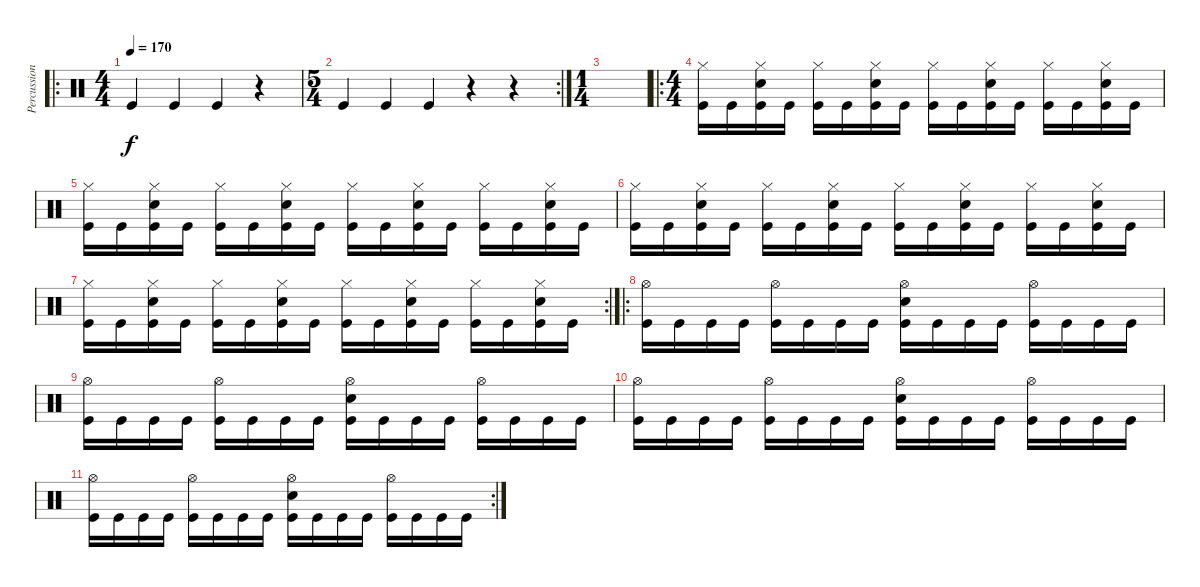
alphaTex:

\track ("Percussion" "Percussion") {instrument percussion}
\staff {score}
\articulation defaults
\ro
\ts (4 4)
\tempo 170
\clef neutral
\ks c "Kick (hit)".4{dy f} "Kick (hit)".4 "Kick (hit)".4
r.4 |
\rc 2
\ts (5 4)
"Kick (hit)".4 "Kick (hit)".4 "Kick (hit)".4 r.4 r.4 |
\ts (1 4)
|
\ro
\ts (4 4)
("Hi-Hat (closed)" "Kick (hit)").16 "Kick (hit)".16 ("Hi-Hat (closed)" "Snare (hit) 2" "Kick (hit)").16 "Kick (hit)".16 ("Hi-Hat (closed)" "Kick (hit)").16 "Kick (hit)".16 ("Hi-Hat (closed)" "Snare (hit) 2" "Kick (hit)").16 "Kick (hit)".16 ("Hi-Hat (closed)" "Kick (hit)").16 "Kick (hit)".16 ("Hi-Hat (closed)" "Snare (hit) 2" "Kick (hit)").16 "Kick (hit)".16 ("Hi-Hat (closed)" "Kick (hit)").16 "Kick (hit)".16 ("Hi-Hat (closed)" "Snare (hit) 2" "Kick (hit)").16 "Kick (hit)".16 |
("Hi-Hat (closed)" "Kick (hit)").16 "Kick (hit)".16 ("Hi-Hat (closed)" "Snare (hit) 2" "Kick (hit)").16 "Kick (hit)".16 ("Hi-Hat (closed)" "Kick (hit)").16 "Kick (hit)".16 ("Hi-Hat (closed)" "Snare (hit) 2" "Kick (hit)").16 "Kick (hit)".16 ("Hi-Hat (closed)" "Kick (hit)").16 "Kick (hit)".16 ("Hi-Hat (closed)" "Snare (hit) 2" "Kick (hit)").16 "Kick (hit)".16 ("Hi-Hat (closed)" "Kick (hit)").16 "Kick (hit)".16 ("Hi-Hat (closed)" "Snare (hit) 2" "Kick (hit)").16 "Kick (hit)".16 |
("Hi-Hat (closed)" "Kick (hit)").16 "Kick (hit)".16 ("Hi-Hat (closed)" "Snare (hit) 2" "Kick (hit)").16 "Kick (hit)".16 ("Hi-Hat (closed)" "Kick (hit)").16 "Kick (hit)".16 ("Hi-Hat (closed)" "Snare (hit) 2" "Kick (hit)").16 "Kick (hit)".16 ("Hi-Hat (closed)" "Kick (hit)").16 "Kick (hit)".16 ("Hi-Hat (closed)" "Snare (hit) 2" "Kick (hit)").16 "Kick (hit)".16 ("Hi-Hat (closed)" "Kick (hit)").16 "Kick (hit)".16 ("Hi-Hat (closed)" "Snare (hit) 2" "Kick (hit)").16 "Kick (hit)".16 |
\rc 2
("Hi-Hat (closed)" "Kick (hit)").16 "Kick (hit)".16 ("Hi-Hat (closed)" "Snare (hit) 2" "Kick (hit)").16 "Kick (hit)".16 ("Hi-Hat (closed)" "Kick (hit)").16 "Kick (hit)".16 ("Hi-Hat (closed)" "Snare (hit) 2" "Kick (hit)").16 "Kick (hit)".16 ("Hi-Hat (closed)" "Kick (hit)").16 "Kick (hit)".16 ("Hi-Hat (closed)" "Snare (hit) 2" "Kick (hit)").16 "Kick (hit)".16 ("Hi-Hat (closed)" "Kick (hit)").16 "Kick (hit)".16 ("Hi-Hat (closed)" "Snare (hit) 2" "Kick (hit)").16 "Kick (hit)".16 |
\ro
("Hi-Hat (open)" "Kick (hit)").16 "Kick (hit)".16 "Kick (hit)".16 "Kick (hit)".16 ("Hi-Hat (open)" "Kick (hit)").16 "Kick (hit)".16 "Kick (hit)".16 "Kick (hit)".16 ("Hi-Hat (open)" "Snare (hit) 2" "Kick (hit)").16 "Kick (hit)".16 "Kick (hit)".16 "Kick (hit)".16 ("Hi-Hat (open)" "Kick (hit)").16 "Kick (hit)".16 "Kick (hit)".16 "Kick (hit)".16 |
("Hi-Hat (open)" "Kick (hit)").16 "Kick (hit)".16 "Kick (hit)".16 "Kick (hit)".16 ("Hi-Hat (open)" "Kick (hit)").16 "Kick (hit)".16 "Kick (hit)".16 "Kick (hit)".16 ("Hi-Hat (open)" "Snare (hit) 2" "Kick (hit)").16 "Kick (hit)".16 "Kick (hit)".16 "Kick (hit)".16 ("Hi-Hat (open)" "Kick (hit)").16 "Kick (hit)".16 "Kick (hit)".16 "Kick (hit)".16 |
("Hi-Hat (open)" "Kick (hit)").16 "Kick (hit)".16 "Kick (hit)".16 "Kick (hit)".16 ("Hi-Hat (open)" "Kick (hit)").16 "Kick (hit)".16 "Kick (hit)".16 "Kick (hit)".16 ("Hi-Hat (open)" "Snare (hit) 2" "Kick (hit)").16 "Kick (hit)".16 "Kick (hit)".16 "Kick (hit)".16 ("Hi-Hat (open)" "Kick (hit)").16 "Kick (hit)".16 "Kick (hit)".16 "Kick (hit)".16 |
\rc 2
("Hi-Hat (open)" "Kick (hit)").16 "Kick (hit)".16 "Kick (hit)".16 "Kick (hit)".16 ("Hi-Hat (open)" "Kick (hit)").16 "Kick (hit)".16 "Kick (hit)".16 "Kick (hit)".16 ("Hi-Hat (open)" "Snare (hit) 2" "Kick (hit)").16 "Kick (hit)".16 "Kick (hit)".16 "Kick (hit)".16 ("Hi-Hat (open)" "Kick (hit)").16 "Kick (hit)".16 "Kick (hit)".16 "Kick (hit)".16
